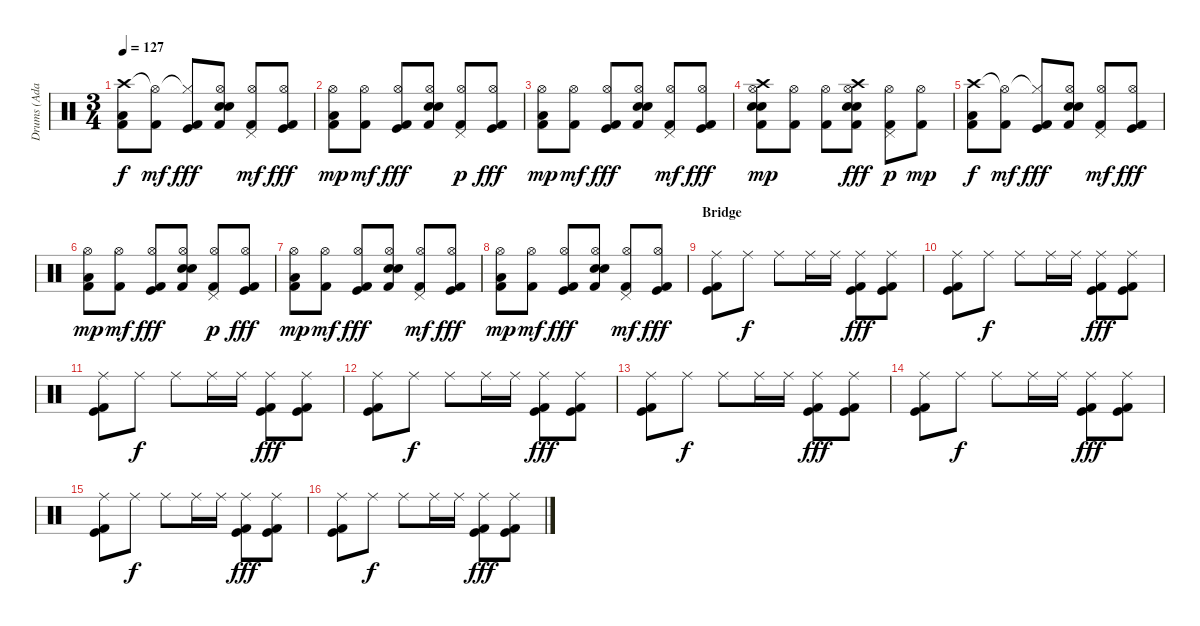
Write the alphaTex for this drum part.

\track ("Drums (Adam)" "Drums (Ada") {instrument percussion}
\staff {score}
\articulation defaults
\ts (3 4)
\tempo 127
\clef neutral
\ks c
("Crash high (hit)" "Low Tom (hit)" "Kick (hit) 2").8{dy f} ("Hi-Hat (open)"{t} "Kick (hit) 2").8{dy mf} ("Hi-Hat (closed)"{t} "Kick (hit)" "Kick (hit) 2").8{dy fff} ("Hi-Hat (open)" "Electric Snare (hit)" "Electric Snare (hit)" "Kick (hit) 2").8 ("Hi-Hat (open)" "Pedal Hi-Hat (hit)" "Kick (hit) 2").8{dy mf} ("Hi-Hat (open)" "Kick (hit)" "Kick (hit) 2").8{dy fff} |
("Hi-Hat (open)" "Low Tom (hit)" "Kick (hit) 2").8{dy mp} ("Hi-Hat (open)" "Kick (hit) 2").8{dy mf} ("Hi-Hat (open)" "Kick (hit)" "Kick (hit) 2").8{dy fff} ("Hi-Hat (open)" "Electric Snare (hit)" "Electric Snare (hit)" "Kick (hit) 2").8 ("Hi-Hat (open)" "Pedal Hi-Hat (hit)" "Kick (hit) 2").8{dy p} ("Hi-Hat (open)" "Kick (hit)" "Kick (hit) 2").8{dy fff} |
("Hi-Hat (open)" "Low Tom (hit)" "Kick (hit) 2").8{dy mp} ("Hi-Hat (open)" "Kick (hit) 2").8{dy mf} ("Hi-Hat (open)" "Kick (hit)" "Kick (hit) 2").8{dy fff} ("Hi-Hat (open)" "Electric Snare (hit)" "Electric Snare (hit)" "Kick (hit) 2").8 ("Hi-Hat (open)" "Pedal Hi-Hat (hit)" "Kick (hit) 2").8{dy mf} ("Hi-Hat (open)" "Kick (hit)" "Kick (hit) 2").8{dy fff} |
("Crash high (hit)" "Hi-Hat (open)" "Electric Snare (hit)" "Electric Snare (hit)" "Kick (hit) 2").8{dy mp} ("Hi-Hat (open)" "Kick (hit) 2").8 ("Hi-Hat (open)" "Kick (hit) 2").8 ("Crash high (hit)" "Hi-Hat (open)" "Electric Snare (hit)" "Electric Snare (hit)" "Kick (hit) 2").8{dy fff} ("Hi-Hat (open)" "Pedal Hi-Hat (hit)" "Kick (hit) 2").8{dy p} ("Hi-Hat (open)" "Kick (hit) 2").8{dy mp} |
("Crash high (hit)" "Low Tom (hit)" "Kick (hit) 2").8{dy f} ("Hi-Hat (open)"{t} "Kick (hit) 2").8{dy mf} ("Hi-Hat (closed)"{t} "Kick (hit)" "Kick (hit) 2").8{dy fff} ("Hi-Hat (open)" "Electric Snare (hit)" "Electric Snare (hit)" "Kick (hit) 2").8 ("Hi-Hat (open)" "Pedal Hi-Hat (hit)" "Kick (hit) 2").8{dy mf} ("Hi-Hat (open)" "Kick (hit)" "Kick (hit) 2").8{dy fff} |
("Hi-Hat (open)" "Low Tom (hit)" "Kick (hit) 2").8{dy mp} ("Hi-Hat (open)" "Kick (hit) 2").8{dy mf} ("Hi-Hat (open)" "Kick (hit)" "Kick (hit) 2").8{dy fff} ("Hi-Hat (open)" "Electric Snare (hit)" "Electric Snare (hit)" "Kick (hit) 2").8 ("Hi-Hat (open)" "Pedal Hi-Hat (hit)" "Kick (hit) 2").8{dy p} ("Hi-Hat (open)" "Kick (hit)" "Kick (hit) 2").8{dy fff} |
("Hi-Hat (open)" "Low Tom (hit)" "Kick (hit) 2").8{dy mp} ("Hi-Hat (open)" "Kick (hit) 2").8{dy mf} ("Hi-Hat (open)" "Kick (hit)" "Kick (hit) 2").8{dy fff} ("Hi-Hat (open)" "Electric Snare (hit)" "Electric Snare (hit)" "Kick (hit) 2").8 ("Hi-Hat (open)" "Pedal Hi-Hat (hit)" "Kick (hit) 2").8{dy mf} ("Hi-Hat (open)" "Kick (hit)" "Kick (hit) 2").8{dy fff} |
("Hi-Hat (open)" "Low Tom (hit)" "Kick (hit) 2").8{dy mp} ("Hi-Hat (open)" "Kick (hit) 2").8{dy mf} ("Hi-Hat (open)" "Kick (hit)" "Kick (hit) 2").8{dy fff} ("Hi-Hat (open)" "Electric Snare (hit)" "Electric Snare (hit)" "Kick (hit) 2").8 ("Hi-Hat (open)" "Pedal Hi-Hat (hit)" "Kick (hit) 2").8{dy mf} ("Hi-Hat (open)" "Kick (hit)" "Kick (hit) 2").8{dy fff} |
\section ("" "Bridge")
("Ride (middle)" "Kick (hit)" "Kick (hit) 2").8 "Ride (middle)".8{dy f} "Ride (middle)".8 "Ride (middle)".16 "Ride (middle)".16 ("Ride (middle)" "Kick (hit)" "Kick (hit) 2").8{dy fff} ("Ride (middle)" "Kick (hit)" "Kick (hit) 2").8 |
("Ride (middle)" "Kick (hit)" "Kick (hit) 2").8 "Ride (middle)".8{dy f} "Ride (middle)".8 "Ride (middle)".16 "Ride (middle)".16 ("Ride (middle)" "Kick (hit)" "Kick (hit) 2").8{dy fff} ("Ride (middle)" "Kick (hit)" "Kick (hit) 2").8 |
("Ride (middle)" "Kick (hit)" "Kick (hit) 2").8 "Ride (middle)".8{dy f} "Ride (middle)".8 "Ride (middle)".16 "Ride (middle)".16 ("Ride (middle)" "Kick (hit)" "Kick (hit) 2").8{dy fff} ("Ride (middle)" "Kick (hit)" "Kick (hit) 2").8 |
("Ride (middle)" "Kick (hit)" "Kick (hit) 2").8 "Ride (middle)".8{dy f} "Ride (middle)".8 "Ride (middle)".16 "Ride (middle)".16 ("Ride (middle)" "Kick (hit)" "Kick (hit) 2").8{dy fff} ("Ride (middle)" "Kick (hit)" "Kick (hit) 2").8 |
("Ride (middle)" "Kick (hit)" "Kick (hit) 2").8 "Ride (middle)".8{dy f} "Ride (middle)".8 "Ride (middle)".16 "Ride (middle)".16 ("Ride (middle)" "Kick (hit)" "Kick (hit) 2").8{dy fff} ("Ride (middle)" "Kick (hit)" "Kick (hit) 2").8 |
("Ride (middle)" "Kick (hit)" "Kick (hit) 2").8 "Ride (middle)".8{dy f} "Ride (middle)".8 "Ride (middle)".16 "Ride (middle)".16 ("Ride (middle)" "Kick (hit)" "Kick (hit) 2").8{dy fff} ("Ride (middle)" "Kick (hit)" "Kick (hit) 2").8 |
("Ride (middle)" "Kick (hit)" "Kick (hit) 2").8 "Ride (middle)".8{dy f} "Ride (middle)".8 "Ride (middle)".16 "Ride (middle)".16 ("Ride (middle)" "Kick (hit)" "Kick (hit) 2").8{dy fff} ("Ride (middle)" "Kick (hit)" "Kick (hit) 2").8 |
("Ride (middle)" "Kick (hit)" "Kick (hit) 2").8 "Ride (middle)".8{dy f} "Ride (middle)".8 "Ride (middle)".16 "Ride (middle)".16 ("Ride (middle)" "Kick (hit)" "Kick (hit) 2").8{dy fff} ("Ride (middle)" "Kick (hit)" "Kick (hit) 2").8
